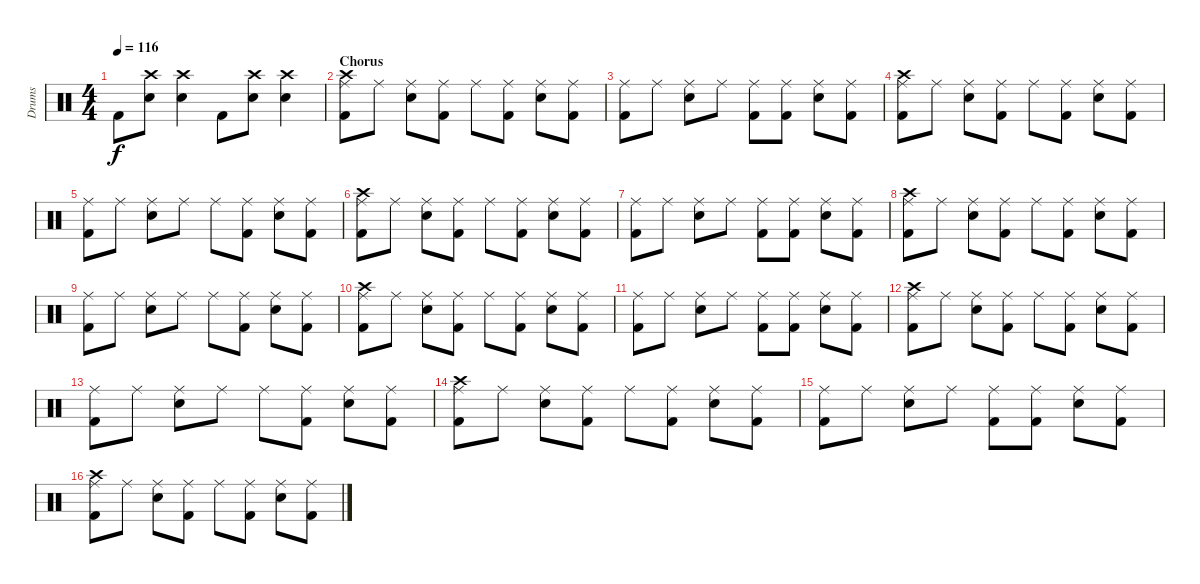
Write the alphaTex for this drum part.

\track ("Drums" "Drums") {instrument percussion}
\staff {score}
\articulation defaults
\ts (4 4)
\tempo 116
\clef neutral
\ks c "Kick (hit) 2".8{dy f}
("Crash high (hit)" "Snare (hit) 2").8 ("Crash high (hit)" "Snare (hit) 2").4 "Kick (hit) 2".8 ("Crash high (hit)" "Snare (hit) 2").8 ("Crash high (hit)" "Snare (hit) 2").4 |
\section ("" "Chorus")
("Crash high (hit)" "Ride (middle)" "Kick (hit) 2").8 "Ride (middle)".8 ("Ride (middle)" "Snare (hit) 2").8 ("Ride (middle)" "Kick (hit) 2").8 "Ride (middle)".8 ("Ride (middle)" "Kick (hit) 2").8 ("Ride (middle)" "Snare (hit) 2").8 ("Ride (middle)" "Kick (hit) 2").8 |
("Ride (middle)" "Kick (hit) 2").8 "Ride (middle)".8 ("Ride (middle)" "Snare (hit) 2").8 "Ride (middle)".8 ("Ride (middle)" "Kick (hit) 2").8 ("Ride (middle)" "Kick (hit) 2").8 ("Ride (middle)" "Snare (hit) 2").8 ("Ride (middle)" "Kick (hit) 2").8 |
("Crash high (hit)" "Ride (middle)" "Kick (hit) 2").8 "Ride (middle)".8 ("Ride (middle)" "Snare (hit) 2").8 ("Ride (middle)" "Kick (hit) 2").8 "Ride (middle)".8 ("Ride (middle)" "Kick (hit) 2").8 ("Ride (middle)" "Snare (hit) 2").8 ("Ride (middle)" "Kick (hit) 2").8 |
("Ride (middle)" "Kick (hit) 2").8 "Ride (middle)".8 ("Ride (middle)" "Snare (hit) 2").8 "Ride (middle)".8 "Ride (middle)".8 ("Ride (middle)" "Kick (hit) 2").8 ("Ride (middle)" "Snare (hit) 2").8 ("Ride (middle)" "Kick (hit) 2").8 |
("Crash high (hit)" "Ride (middle)" "Kick (hit) 2").8 "Ride (middle)".8 ("Ride (middle)" "Snare (hit) 2").8 ("Ride (middle)" "Kick (hit) 2").8 "Ride (middle)".8 ("Ride (middle)" "Kick (hit) 2").8 ("Ride (middle)" "Snare (hit) 2").8 ("Ride (middle)" "Kick (hit) 2").8 |
("Ride (middle)" "Kick (hit) 2").8 "Ride (middle)".8 ("Ride (middle)" "Snare (hit) 2").8 "Ride (middle)".8 ("Ride (middle)" "Kick (hit) 2").8 ("Ride (middle)" "Kick (hit) 2").8 ("Ride (middle)" "Snare (hit) 2").8 ("Ride (middle)" "Kick (hit) 2").8 |
("Crash high (hit)" "Ride (middle)" "Kick (hit) 2").8 "Ride (middle)".8 ("Ride (middle)" "Snare (hit) 2").8 ("Ride (middle)" "Kick (hit) 2").8 "Ride (middle)".8 ("Ride (middle)" "Kick (hit) 2").8 ("Ride (middle)" "Snare (hit) 2").8 ("Ride (middle)" "Kick (hit) 2").8 |
("Ride (middle)" "Kick (hit) 2").8 "Ride (middle)".8 ("Ride (middle)" "Snare (hit) 2").8 "Ride (middle)".8 "Ride (middle)".8 ("Ride (middle)" "Kick (hit) 2").8 ("Ride (middle)" "Snare (hit) 2").8 ("Ride (middle)" "Kick (hit) 2").8 |
("Crash high (hit)" "Ride (middle)" "Kick (hit) 2").8 "Ride (middle)".8 ("Ride (middle)" "Snare (hit) 2").8 ("Ride (middle)" "Kick (hit) 2").8 "Ride (middle)".8 ("Ride (middle)" "Kick (hit) 2").8 ("Ride (middle)" "Snare (hit) 2").8 ("Ride (middle)" "Kick (hit) 2").8 |
("Ride (middle)" "Kick (hit) 2").8 "Ride (middle)".8 ("Ride (middle)" "Snare (hit) 2").8 "Ride (middle)".8 ("Ride (middle)" "Kick (hit) 2").8 ("Ride (middle)" "Kick (hit) 2").8 ("Ride (middle)" "Snare (hit) 2").8 ("Ride (middle)" "Kick (hit) 2").8 |
("Crash high (hit)" "Ride (middle)" "Kick (hit) 2").8 "Ride (middle)".8 ("Ride (middle)" "Snare (hit) 2").8 ("Ride (middle)" "Kick (hit) 2").8 "Ride (middle)".8 ("Ride (middle)" "Kick (hit) 2").8 ("Ride (middle)" "Snare (hit) 2").8 ("Ride (middle)" "Kick (hit) 2").8 |
("Ride (middle)" "Kick (hit) 2").8 "Ride (middle)".8 ("Ride (middle)" "Snare (hit) 2").8 "Ride (middle)".8 "Ride (middle)".8 ("Ride (middle)" "Kick (hit) 2").8 ("Ride (middle)" "Snare (hit) 2").8 ("Ride (middle)" "Kick (hit) 2").8 |
("Crash high (hit)" "Ride (middle)" "Kick (hit) 2").8 "Ride (middle)".8 ("Ride (middle)" "Snare (hit) 2").8 ("Ride (middle)" "Kick (hit) 2").8 "Ride (middle)".8 ("Ride (middle)" "Kick (hit) 2").8 ("Ride (middle)" "Snare (hit) 2").8 ("Ride (middle)" "Kick (hit) 2").8 |
("Ride (middle)" "Kick (hit) 2").8 "Ride (middle)".8 ("Ride (middle)" "Snare (hit) 2").8 "Ride (middle)".8 ("Ride (middle)" "Kick (hit) 2").8 ("Ride (middle)" "Kick (hit) 2").8 ("Ride (middle)" "Snare (hit) 2").8 ("Ride (middle)" "Kick (hit) 2").8 |
("Crash high (hit)" "Ride (middle)" "Kick (hit) 2").8 "Ride (middle)".8 ("Ride (middle)" "Snare (hit) 2").8 ("Ride (middle)" "Kick (hit) 2").8 "Ride (middle)".8 ("Ride (middle)" "Kick (hit) 2").8 ("Ride (middle)" "Snare (hit) 2").8 ("Ride (middle)" "Kick (hit) 2").8
